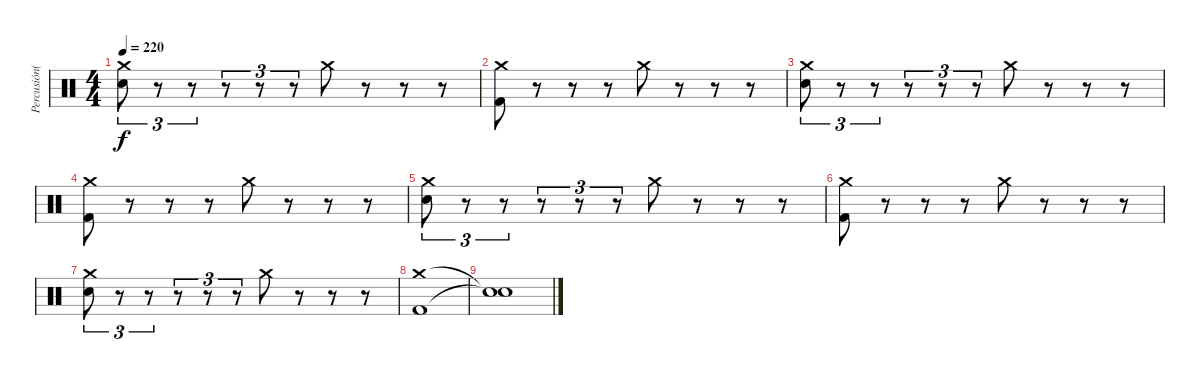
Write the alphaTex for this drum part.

\track ("Percusión(Brett Powell)" "Percusión(") {instrument percussion}
\staff {score}
\articulation defaults
\ts (4 4)
\tempo 220
\clef neutral
\ks c
("Crash medium (hit)" "Electric Snare (hit)").8{tu (3 2) dy f} r.8{tu (3 2)} r.8{tu (3 2)} r.8{tu (3 2)} r.8{tu (3 2)} r.8{tu (3 2)} "Crash medium (hit)".8 r.8 r.8 r.8 |
("Crash medium (hit)" "Kick (hit) 2").8 r.8 r.8 r.8 "Crash medium (hit)".8 r.8 r.8 r.8 |
("Crash medium (hit)" "Electric Snare (hit)").8{tu (3 2)} r.8{tu (3 2)} r.8{tu (3 2)} r.8{tu (3 2)} r.8{tu (3 2)} r.8{tu (3 2)} "Crash medium (hit)".8 r.8 r.8 r.8 |
("Crash medium (hit)" "Kick (hit) 2").8 r.8 r.8 r.8 "Crash medium (hit)".8 r.8 r.8 r.8 |
("Crash medium (hit)" "Electric Snare (hit)").8{tu (3 2)} r.8{tu (3 2)} r.8{tu (3 2)} r.8{tu (3 2)} r.8{tu (3 2)} r.8{tu (3 2)} "Crash medium (hit)".8 r.8 r.8 r.8 |
("Crash medium (hit)" "Kick (hit) 2").8 r.8 r.8 r.8 "Crash medium (hit)".8 r.8 r.8 r.8 |
("Crash medium (hit)" "Electric Snare (hit)").8{tu (3 2)} r.8{tu (3 2)} r.8{tu (3 2)} r.8{tu (3 2)} r.8{tu (3 2)} r.8{tu (3 2)} "Crash medium (hit)".8 r.8 r.8 r.8 |
("Crash medium (hit)" "Kick (hit) 2").1 |
("Snare (hit)"{t} "Snare (hit)"{t}).1
